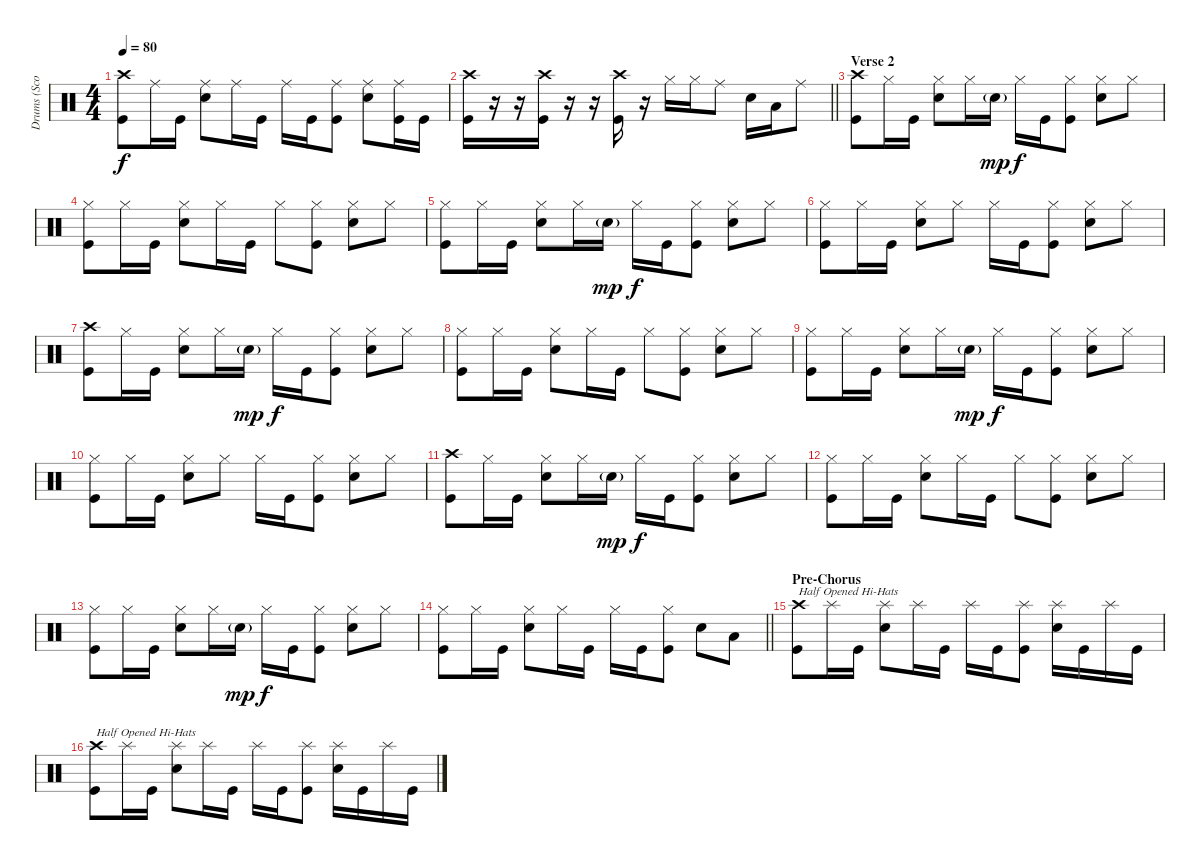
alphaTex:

\track ("Drums (Scott Phillips)" "Drums (Sco") {instrument percussion}
\staff {score}
\articulation defaults
\ts (4 4)
\tempo 80
\clef neutral
\ks c
("Crash high (hit)" "Kick (hit)").8{dy f} "Ride (middle)".16 "Kick (hit)".16 ("Ride (middle)" "Snare (hit) 2").8 "Ride (middle)".16 "Kick (hit)".16 "Ride (middle)".16 "Kick (hit)".16 ("Ride (middle)" "Kick (hit)").8 ("Ride (middle)" "Snare (hit) 2").8 ("Ride (middle)" "Kick (hit)").16 "Kick (hit)".16 |
\barLineRight lightlight
("Crash high (hit)" "Kick (hit)").16 r.16 r.16 ("Crash high (hit)" "Kick (hit)").16 r.16 r.16 ("Crash high (hit)" "Kick (hit)").16 r.16 "Hi-Hat (closed)".16 "Hi-Hat (closed)".16 "Ride (middle)".8 "Snare (hit) 2".16 "Low Tom (hit)".16 "Ride (middle)".8 |
\section ("" "Verse 2")
("Crash high (hit)" "Kick (hit)").8 "Hi-Hat (closed)".16 "Kick (hit)".16 ("Hi-Hat (closed)" "Snare (hit) 2").8 "Hi-Hat (closed)".16 "Snare (hit) 2"{g}.16{dy mp} "Hi-Hat (closed)".16{dy f} "Kick (hit)".16 ("Hi-Hat (closed)" "Kick (hit)").8 ("Hi-Hat (closed)" "Snare (hit) 2").8 "Hi-Hat (closed)".8 |
("Hi-Hat (closed)" "Kick (hit)").8 "Hi-Hat (closed)".16 "Kick (hit)".16 ("Hi-Hat (closed)" "Snare (hit) 2").8 "Hi-Hat (closed)".16 "Kick (hit)".16 "Hi-Hat (closed)".8 ("Hi-Hat (closed)" "Kick (hit)").8 ("Hi-Hat (closed)" "Snare (hit) 2").8 "Hi-Hat (closed)".8 |
("Hi-Hat (closed)" "Kick (hit)").8 "Hi-Hat (closed)".16 "Kick (hit)".16 ("Hi-Hat (closed)" "Snare (hit) 2").8 "Hi-Hat (closed)".16 "Snare (hit) 2"{g}.16{dy mp} "Hi-Hat (closed)".16{dy f} "Kick (hit)".16 ("Hi-Hat (closed)" "Kick (hit)").8 ("Hi-Hat (closed)" "Snare (hit) 2").8 "Hi-Hat (closed)".8 |
("Hi-Hat (closed)" "Kick (hit)").8 "Hi-Hat (closed)".16 "Kick (hit)".16 ("Hi-Hat (closed)" "Snare (hit) 2").8 "Hi-Hat (closed)".8 "Hi-Hat (closed)".16 "Kick (hit)".16 ("Hi-Hat (closed)" "Kick (hit)").8 ("Hi-Hat (closed)" "Snare (hit) 2").8 "Hi-Hat (closed)".8 |
("Crash high (hit)" "Kick (hit)").8 "Hi-Hat (closed)".16 "Kick (hit)".16 ("Hi-Hat (closed)" "Snare (hit) 2").8 "Hi-Hat (closed)".16 "Snare (hit) 2"{g}.16{dy mp} "Hi-Hat (closed)".16{dy f} "Kick (hit)".16 ("Hi-Hat (closed)" "Kick (hit)").8 ("Hi-Hat (closed)" "Snare (hit) 2").8 "Hi-Hat (closed)".8 |
("Hi-Hat (closed)" "Kick (hit)").8 "Hi-Hat (closed)".16 "Kick (hit)".16 ("Hi-Hat (closed)" "Snare (hit) 2").8 "Hi-Hat (closed)".16 "Kick (hit)".16 "Hi-Hat (closed)".8 ("Hi-Hat (closed)" "Kick (hit)").8 ("Hi-Hat (closed)" "Snare (hit) 2").8 "Hi-Hat (closed)".8 |
("Hi-Hat (closed)" "Kick (hit)").8 "Hi-Hat (closed)".16 "Kick (hit)".16 ("Hi-Hat (closed)" "Snare (hit) 2").8 "Hi-Hat (closed)".16 "Snare (hit) 2"{g}.16{dy mp} "Hi-Hat (closed)".16{dy f} "Kick (hit)".16 ("Hi-Hat (closed)" "Kick (hit)").8 ("Hi-Hat (closed)" "Snare (hit) 2").8 "Hi-Hat (closed)".8 |
("Hi-Hat (closed)" "Kick (hit)").8 "Hi-Hat (closed)".16 "Kick (hit)".16 ("Hi-Hat (closed)" "Snare (hit) 2").8 "Hi-Hat (closed)".8 "Hi-Hat (closed)".16 "Kick (hit)".16 ("Hi-Hat (closed)" "Kick (hit)").8 ("Hi-Hat (closed)" "Snare (hit) 2").8 "Hi-Hat (closed)".8 |
("Crash high (hit)" "Kick (hit)").8 "Hi-Hat (closed)".16 "Kick (hit)".16 ("Hi-Hat (closed)" "Snare (hit) 2").8 "Hi-Hat (closed)".16 "Snare (hit) 2"{g}.16{dy mp} "Hi-Hat (closed)".16{dy f} "Kick (hit)".16 ("Hi-Hat (closed)" "Kick (hit)").8 ("Hi-Hat (closed)" "Snare (hit) 2").8 "Hi-Hat (closed)".8 |
("Hi-Hat (closed)" "Kick (hit)").8 "Hi-Hat (closed)".16 "Kick (hit)".16 ("Hi-Hat (closed)" "Snare (hit) 2").8 "Hi-Hat (closed)".16 "Kick (hit)".16 "Hi-Hat (closed)".8 ("Hi-Hat (closed)" "Kick (hit)").8 ("Hi-Hat (closed)" "Snare (hit) 2").8 "Hi-Hat (closed)".8 |
("Hi-Hat (closed)" "Kick (hit)").8 "Hi-Hat (closed)".16 "Kick (hit)".16 ("Hi-Hat (closed)" "Snare (hit) 2").8 "Hi-Hat (closed)".16 "Snare (hit) 2"{g}.16{dy mp} "Hi-Hat (closed)".16{dy f} "Kick (hit)".16 ("Hi-Hat (closed)" "Kick (hit)").8 ("Hi-Hat (closed)" "Snare (hit) 2").8 "Hi-Hat (closed)".8 |
\barLineRight lightlight
("Hi-Hat (closed)" "Kick (hit)").8 "Hi-Hat (closed)".16 "Kick (hit)".16 ("Hi-Hat (closed)" "Snare (hit) 2").8 "Hi-Hat (closed)".16 "Kick (hit)".16 "Hi-Hat (closed)".16 "Kick (hit)".16 ("Hi-Hat (closed)" "Kick (hit)").8 "Snare (hit) 2".8 "Low Tom (hit)".8 |
\section ("" "Pre-Chorus")
("Crash high (hit)" "Kick (hit)").8{txt "Half Opened Hi-Hats"} "Splash (hit)".16 "Kick (hit)".16 ("Splash (hit)" "Snare (hit) 2").8 "Splash (hit)".16 "Kick (hit)".16 "Splash (hit)".16 "Kick (hit)".16 ("Splash (hit)" "Kick (hit)").8 ("Splash (hit)" "Snare (hit) 2").16 "Kick (hit)".16 "Splash (hit)".16 "Kick (hit)".16 |
("Crash high (hit)" "Kick (hit)").8{txt "Half Opened Hi-Hats"} "Splash (hit)".16 "Kick (hit)".16 ("Splash (hit)" "Snare (hit) 2").8 "Splash (hit)".16 "Kick (hit)".16 "Splash (hit)".16 "Kick (hit)".16 ("Splash (hit)" "Kick (hit)").8 ("Splash (hit)" "Snare (hit) 2").16 "Kick (hit)".16 "Splash (hit)".16 "Kick (hit)".16
